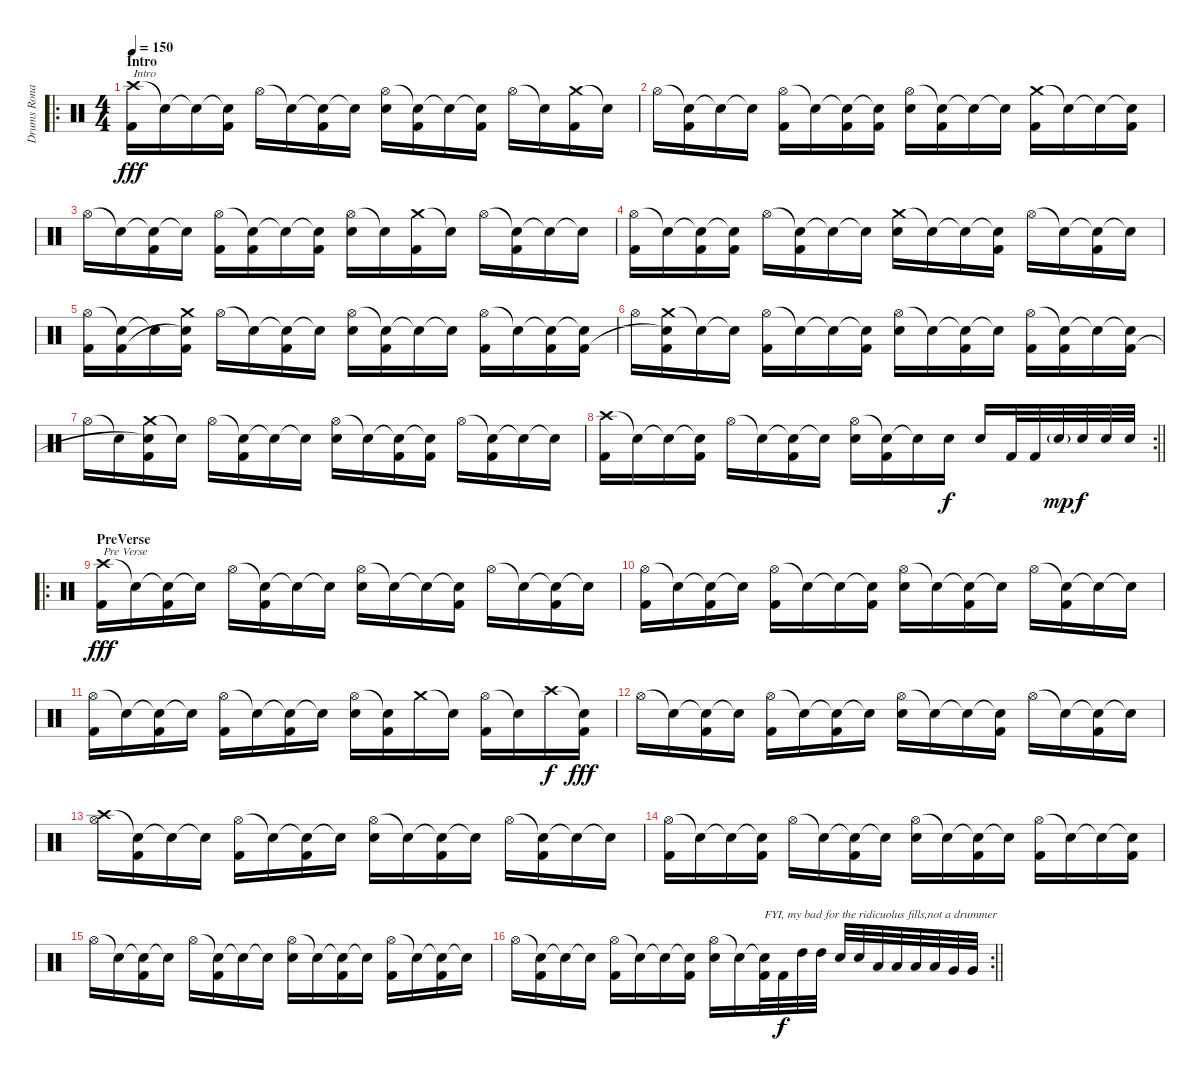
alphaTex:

\track ("Drums Ronald Reagen FTW" "Drums Rona") {instrument percussion}
\staff {score}
\articulation defaults
\ro
\ts (4 4)
\section ("" "Intro")
\tempo 150
\clef neutral
\ks c
("Crash high (hit)" "Kick (hit) 2").16{txt "Intro" dy fff} "Snare (hit)"{t}.16 "Snare (hit)"{t}.16 ("Snare (hit)"{t} "Kick (hit) 2").16 "Hi-Hat (open)".16 "Snare (hit)"{t}.16 ("Snare (hit)"{t} "Kick (hit) 2").16 "Snare (hit)"{t}.16 ("Hi-Hat (open)" "Electric Snare (hit)").16 ("Snare (hit)"{t} "Kick (hit) 2").16 "Snare (hit)"{t}.16 ("Snare (hit)"{t} "Kick (hit) 2").16 "Hi-Hat (open)".16 "Snare (hit)"{t}.16 ("Crash medium (hit)" "Kick (hit) 2").16 "Snare (hit)"{t}.16 |
"Hi-Hat (open)".16 ("Snare (hit)"{t} "Kick (hit) 2").16 "Snare (hit)"{t}.16 "Snare (hit)"{t}.16 ("Hi-Hat (open)" "Kick (hit) 2").16 "Snare (hit)"{t}.16 ("Snare (hit)"{t} "Kick (hit) 2").16 ("Snare (hit)"{t} "Kick (hit) 2").16 ("Hi-Hat (open)" "Electric Snare (hit)").16 ("Snare (hit)"{t} "Kick (hit) 2").16 "Snare (hit)"{t}.16 "Snare (hit)"{t}.16 ("Crash medium (hit)" "Kick (hit) 2").16 "Snare (hit)"{t}.16 "Snare (hit)"{t}.16 ("Snare (hit)"{t} "Kick (hit) 2").16 |
"Hi-Hat (open)".16 "Snare (hit)"{t}.16 ("Snare (hit)"{t} "Kick (hit) 2").16 "Snare (hit)"{t}.16 ("Hi-Hat (open)" "Kick (hit) 2").16 ("Snare (hit)"{t} "Kick (hit) 2").16 "Snare (hit)"{t}.16 ("Snare (hit)"{t} "Kick (hit) 2").16 ("Hi-Hat (open)" "Electric Snare (hit)").16 "Snare (hit)"{t}.16 ("Crash medium (hit)" "Kick (hit) 2").16 "Snare (hit)"{t}.16 "Hi-Hat (open)".16 ("Snare (hit)"{t} "Kick (hit) 2").16 "Snare (hit)"{t}.16 "Snare (hit)"{t}.16 |
("Hi-Hat (open)" "Kick (hit) 2").16 "Snare (hit)"{t}.16 ("Snare (hit)"{t} "Kick (hit) 2").16 ("Snare (hit)"{t} "Kick (hit) 2").16 "Hi-Hat (open)".16 ("Snare (hit)"{t} "Kick (hit) 2").16 "Snare (hit)"{t}.16 "Snare (hit)"{t}.16 ("Crash medium (hit)" "Electric Snare (hit)").16 "Snare (hit)"{t}.16 "Snare (hit)"{t}.16 ("Snare (hit)"{t} "Kick (hit) 2").16 "Hi-Hat (open)".16 "Snare (hit)"{t}.16 ("Snare (hit)"{t} "Kick (hit) 2").16 "Snare (hit)"{t}.16 |
("Hi-Hat (open)" "Kick (hit) 2").16 ("Snare (hit)"{t} "Kick (hit) 2").16 "Snare (hit)"{t}.16 ("Crash medium (hit)" "Snare (hit)"{t} "Kick (hit) 2").16 "Hi-Hat (open)".16 "Snare (hit)"{t}.16 ("Snare (hit)"{t} "Kick (hit) 2").16 "Snare (hit)"{t}.16 ("Hi-Hat (open)" "Electric Snare (hit)").16 ("Snare (hit)"{t} "Kick (hit) 2").16 "Snare (hit)"{t}.16 "Snare (hit)"{t}.16 ("Hi-Hat (open)" "Kick (hit) 2").16 "Snare (hit)"{t}.16 ("Snare (hit)"{t} "Kick (hit) 2").16 ("Snare (hit)"{t} "Kick (hit) 2").16 |
"Hi-Hat (open)".16 ("Crash medium (hit)" "Snare (hit)"{t} "Kick (hit) 2").16 "Snare (hit)"{t}.16 "Snare (hit)"{t}.16 ("Hi-Hat (open)" "Kick (hit) 2").16 "Snare (hit)"{t}.16 "Snare (hit)"{t}.16 ("Snare (hit)"{t} "Kick (hit) 2").16 ("Hi-Hat (open)" "Electric Snare (hit)").16 "Snare (hit)"{t}.16 ("Snare (hit)"{t} "Kick (hit) 2").16 "Snare (hit)"{t}.16 ("Hi-Hat (open)" "Kick (hit) 2").16 ("Snare (hit)"{t} "Kick (hit) 2").16 "Snare (hit)"{t}.16 ("Snare (hit)"{t} "Kick (hit) 2").16 |
"Hi-Hat (open)".16 "Snare (hit)"{t}.16 ("Crash medium (hit)" "Snare (hit)"{t} "Kick (hit) 2").16 "Snare (hit)"{t}.16 "Hi-Hat (open)".16 ("Snare (hit)"{t} "Kick (hit) 2").16 "Snare (hit)"{t}.16 "Snare (hit)"{t}.16 ("Hi-Hat (open)" "Electric Snare (hit)").16 "Snare (hit)"{t}.16 ("Snare (hit)"{t} "Kick (hit) 2").16 ("Snare (hit)"{t} "Kick (hit) 2").16 "Hi-Hat (open)".16 ("Snare (hit)"{t} "Kick (hit) 2").16 "Snare (hit)"{t}.16 "Snare (hit)"{t}.16 |
\rc 2
\barLineRight lightlight
("Crash high (hit)" "Kick (hit) 2").16 "Snare (hit)"{t}.16 "Snare (hit)"{t}.16 ("Snare (hit)"{t} "Kick (hit) 2").16 "Hi-Hat (open)".16 "Snare (hit)"{t}.16 ("Snare (hit)"{t} "Kick (hit) 2").16 "Snare (hit)"{t}.16 ("Hi-Hat (open)" "Electric Snare (hit)").16 ("Snare (hit)"{t} "Kick (hit) 2").16 "Snare (hit)"{t}.16 "Electric Snare (hit)".16{dy f} "Electric Snare (hit)".16 "Kick (hit) 2".32 "Kick (hit) 2".32 "Electric Snare (hit)"{g}.32{dy mp} "Electric Snare (hit)".32{dy f} "Electric Snare (hit)".32 "Electric Snare (hit)".32 |
\ro
\section ("" "PreVerse")
("Crash high (hit)" "Kick (hit) 2").16{txt "Pre Verse" dy fff} "Snare (hit)"{t}.16 ("Snare (hit)"{t} "Kick (hit) 2").16 "Snare (hit)"{t}.16 "Hi-Hat (open)".16 ("Snare (hit)"{t} "Kick (hit) 2").16 "Snare (hit)"{t}.16 "Snare (hit)"{t}.16 ("Hi-Hat (open)" "Electric Snare (hit)").16 "Snare (hit)"{t}.16 "Snare (hit)"{t}.16 ("Snare (hit)"{t} "Kick (hit) 2").16 "Hi-Hat (open)".16 "Snare (hit)"{t}.16 ("Snare (hit)"{t} "Kick (hit) 2").16 "Snare (hit)"{t}.16 |
("Hi-Hat (open)" "Kick (hit) 2").16 "Snare (hit)"{t}.16 ("Snare (hit)"{t} "Kick (hit) 2").16 "Snare (hit)"{t}.16 ("Hi-Hat (open)" "Kick (hit) 2").16 "Snare (hit)"{t}.16 "Snare (hit)"{t}.16 ("Snare (hit)"{t} "Kick (hit) 2").16 ("Hi-Hat (open)" "Electric Snare (hit)").16 "Snare (hit)"{t}.16 ("Snare (hit)"{t} "Kick (hit) 2").16 "Snare (hit)"{t}.16 "Hi-Hat (open)".16 ("Snare (hit)"{t} "Kick (hit) 2").16 "Snare (hit)"{t}.16 "Snare (hit)"{t}.16 |
("Hi-Hat (open)" "Kick (hit) 2").16 "Snare (hit)"{t}.16 ("Snare (hit)"{t} "Kick (hit) 2").16 "Snare (hit)"{t}.16 ("Hi-Hat (open)" "Kick (hit) 2").16 "Snare (hit)"{t}.16 ("Snare (hit)"{t} "Kick (hit) 2").16 "Snare (hit)"{t}.16 ("Hi-Hat (open)" "Electric Snare (hit)").16 ("Snare (hit)"{t} "Kick (hit) 2").16 "Crash medium (hit)".16 "Snare (hit)"{t}.16 ("Hi-Hat (open)" "Kick (hit) 2").16 "Snare (hit)"{t}.16 "Crash high (hit)".16{dy f} ("Snare (hit)"{t} "Kick (hit) 2").16{dy fff} |
"Hi-Hat (open)".16 "Snare (hit)"{t}.16 ("Snare (hit)"{t} "Kick (hit) 2").16 "Snare (hit)"{t}.16 ("Hi-Hat (open)" "Kick (hit) 2").16 "Snare (hit)"{t}.16 ("Snare (hit)"{t} "Kick (hit) 2").16 "Snare (hit)"{t}.16 ("Hi-Hat (open)" "Electric Snare (hit)").16 "Snare (hit)"{t}.16 "Snare (hit)"{t}.16 ("Snare (hit)"{t} "Kick (hit) 2").16 "Hi-Hat (open)".16 "Snare (hit)"{t}.16 ("Snare (hit)"{t} "Kick (hit) 2").16 "Snare (hit)"{t}.16 |
("Crash high (hit)" "Hi-Hat (open)").16 ("Snare (hit)"{t} "Kick (hit) 2").16 "Snare (hit)"{t}.16 "Snare (hit)"{t}.16 ("Hi-Hat (open)" "Kick (hit) 2").16 "Snare (hit)"{t}.16 ("Snare (hit)"{t} "Kick (hit) 2").16 "Snare (hit)"{t}.16 ("Hi-Hat (open)" "Electric Snare (hit)").16 "Snare (hit)"{t}.16 ("Snare (hit)"{t} "Kick (hit) 2").16 "Snare (hit)"{t}.16 "Hi-Hat (open)".16 ("Snare (hit)"{t} "Kick (hit) 2").16 "Snare (hit)"{t}.16 "Snare (hit)"{t}.16 |
("Hi-Hat (open)" "Kick (hit) 2").16 "Snare (hit)"{t}.16 "Snare (hit)"{t}.16 ("Snare (hit)"{t} "Kick (hit) 2").16 "Hi-Hat (open)".16 "Snare (hit)"{t}.16 ("Snare (hit)"{t} "Kick (hit) 2").16 "Snare (hit)"{t}.16 ("Hi-Hat (open)" "Electric Snare (hit)").16 "Snare (hit)"{t}.16 ("Snare (hit)"{t} "Kick (hit) 2").16 "Snare (hit)"{t}.16 ("Hi-Hat (open)" "Kick (hit) 2").16 "Snare (hit)"{t}.16 "Snare (hit)"{t}.16 ("Snare (hit)"{t} "Kick (hit) 2").16 |
"Hi-Hat (open)".16 "Snare (hit)"{t}.16 ("Snare (hit)"{t} "Kick (hit) 2").16 "Snare (hit)"{t}.16 "Hi-Hat (open)".16 ("Snare (hit)"{t} "Kick (hit) 2").16 "Snare (hit)"{t}.16 "Snare (hit)"{t}.16 ("Hi-Hat (open)" "Electric Snare (hit)").16 "Snare (hit)"{t}.16 ("Snare (hit)"{t} "Kick (hit) 2").16 "Snare (hit)"{t}.16 ("Hi-Hat (open)" "Kick (hit) 2").16 "Snare (hit)"{t}.16 ("Snare (hit)"{t} "Kick (hit) 2").16 "Snare (hit)"{t}.16 |
\rc 2
\barLineRight lightlight "Hi-Hat (open)".16
("Snare (hit)"{t} "Kick (hit) 2").16 "Snare (hit)"{t}.16 "Snare (hit)"{t}.16 ("Hi-Hat (open)" "Kick (hit) 2").16 "Snare (hit)"{t}.16 "Snare (hit)"{t}.16 ("Snare (hit)"{t} "Kick (hit) 2").16 ("Hi-Hat (open)" "Electric Snare (hit)").16 "Snare (hit)"{t}.16 ("Snare (hit)"{t} "Kick (hit) 2").32{txt "FYI, my bad for the ridicuolus fills,not a drummer"} "Kick (hit) 2".32{dy f} "High Tom (hit)".32 "High Tom (hit)".32 "Electric Snare (hit)".32 "Electric Snare (hit)".32 "Low Tom (hit)".32 "Low Tom (hit)".32 "Low Tom (hit)".32 "Low Tom (hit)".32 "Very Low Tom (hit)".32 "Very Low Tom (hit)".32
